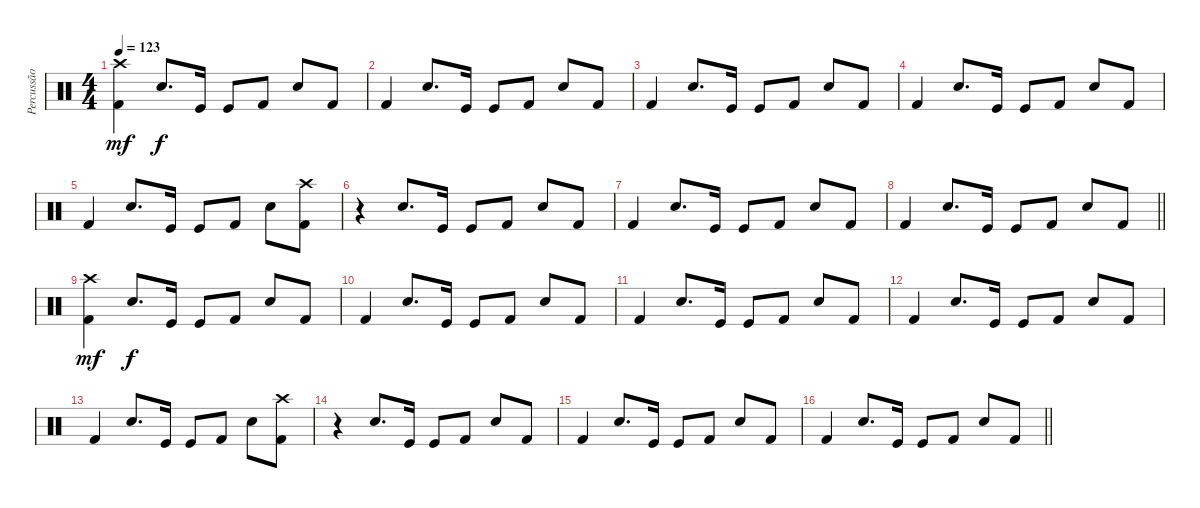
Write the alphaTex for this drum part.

\track ("Percussão" "Percussão") {instrument percussion}
\staff {score}
\articulation defaults
\ts (4 4)
\tempo 123
\clef neutral
\ks c
("Crash high (hit)" "Kick (hit) 2").4{dy mf} "Snare (hit) 2".8{d dy f} "Kick (hit)".16 "Kick (hit)".8 "Kick (hit) 2".8 "Snare (hit) 2".8 "Kick (hit) 2".8 |
"Kick (hit) 2".4 "Snare (hit) 2".8{d} "Kick (hit)".16 "Kick (hit)".8 "Kick (hit) 2".8 "Snare (hit) 2".8 "Kick (hit) 2".8 |
"Kick (hit) 2".4 "Snare (hit) 2".8{d} "Kick (hit)".16 "Kick (hit)".8 "Kick (hit) 2".8 "Snare (hit) 2".8 "Kick (hit) 2".8 |
"Kick (hit) 2".4 "Snare (hit) 2".8{d} "Kick (hit)".16 "Kick (hit)".8 "Kick (hit) 2".8 "Snare (hit) 2".8 "Kick (hit) 2".8 |
"Kick (hit) 2".4 "Snare (hit) 2".8{d} "Kick (hit)".16 "Kick (hit)".8 "Kick (hit) 2".8 "Snare (hit) 2".8 ("Crash high (hit)" "Kick (hit) 2").8 |
r.4 "Snare (hit) 2".8{d} "Kick (hit)".16 "Kick (hit)".8 "Kick (hit) 2".8 "Snare (hit) 2".8 "Kick (hit) 2".8 |
"Kick (hit) 2".4 "Snare (hit) 2".8{d} "Kick (hit)".16 "Kick (hit)".8 "Kick (hit) 2".8 "Snare (hit) 2".8 "Kick (hit) 2".8 |
\barLineRight lightlight "Kick (hit) 2".4 "Snare (hit) 2".8{d} "Kick (hit)".16 "Kick (hit)".8 "Kick (hit) 2".8 "Snare (hit) 2".8 "Kick (hit) 2".8
|
("Crash high (hit)" "Kick (hit) 2").4{dy mf} "Snare (hit) 2".8{d dy f} "Kick (hit)".16 "Kick (hit)".8 "Kick (hit) 2".8 "Snare (hit) 2".8 "Kick (hit) 2".8 |
"Kick (hit) 2".4 "Snare (hit) 2".8{d} "Kick (hit)".16 "Kick (hit)".8 "Kick (hit) 2".8 "Snare (hit) 2".8 "Kick (hit) 2".8 |
"Kick (hit) 2".4 "Snare (hit) 2".8{d} "Kick (hit)".16 "Kick (hit)".8 "Kick (hit) 2".8 "Snare (hit) 2".8 "Kick (hit) 2".8 |
"Kick (hit) 2".4 "Snare (hit) 2".8{d} "Kick (hit)".16 "Kick (hit)".8 "Kick (hit) 2".8 "Snare (hit) 2".8 "Kick (hit) 2".8 |
"Kick (hit) 2".4 "Snare (hit) 2".8{d} "Kick (hit)".16 "Kick (hit)".8 "Kick (hit) 2".8 "Snare (hit) 2".8 ("Crash high (hit)" "Kick (hit) 2").8 |
r.4 "Snare (hit) 2".8{d} "Kick (hit)".16 "Kick (hit)".8 "Kick (hit) 2".8 "Snare (hit) 2".8 "Kick (hit) 2".8 |
"Kick (hit) 2".4 "Snare (hit) 2".8{d} "Kick (hit)".16 "Kick (hit)".8 "Kick (hit) 2".8 "Snare (hit) 2".8 "Kick (hit) 2".8 |
\barLineRight lightlight "Kick (hit) 2".4 "Snare (hit) 2".8{d} "Kick (hit)".16 "Kick (hit)".8 "Kick (hit) 2".8 "Snare (hit) 2".8 "Kick (hit) 2".8
